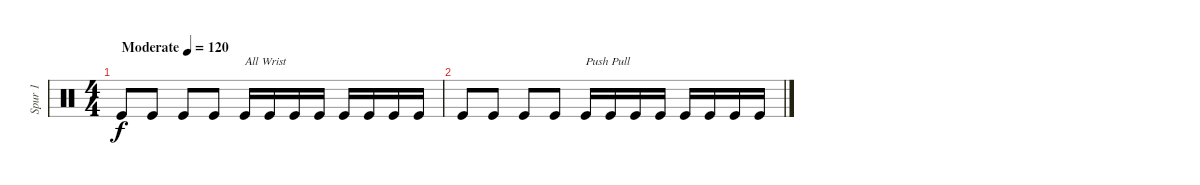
\track ("Spur 1" "Spur 1") {instrument percussion}
\staff {score}
\articulation defaults
\ts (4 4)
\tempo (120 "Moderate")
\clef neutral
\ks c "Kick (hit)".8{dy f} "Kick (hit)".8 "Kick (hit)".8 "Kick (hit)".8 "Kick (hit)".16{txt "All Wrist"} "Kick (hit)".16 "Kick (hit)".16 "Kick (hit)".16 "Kick (hit)".16 "Kick (hit)".16 "Kick (hit)".16 "Kick (hit)".16
|
"Kick (hit)".8 "Kick (hit)".8 "Kick (hit)".8 "Kick (hit)".8 "Kick (hit)".16{txt "Push Pull"} "Kick (hit)".16 "Kick (hit)".16 "Kick (hit)".16 "Kick (hit)".16 "Kick (hit)".16 "Kick (hit)".16 "Kick (hit)".16
